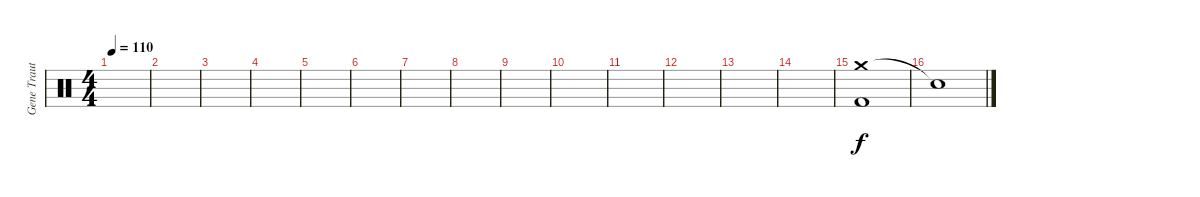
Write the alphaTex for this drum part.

\track ("Gene Trautmann (Drums)" "Gene Traut") {instrument percussion}
\staff {score}
\articulation defaults
\ts (4 4)
\tempo 110
\clef neutral
\ks c
|
|
|
|
|
|
|
|
|
|
|
|
|
|
("Crash medium (hit)" "Kick (hit) 2").1{volume 15} |
"Snare (hit)"{t}.1
